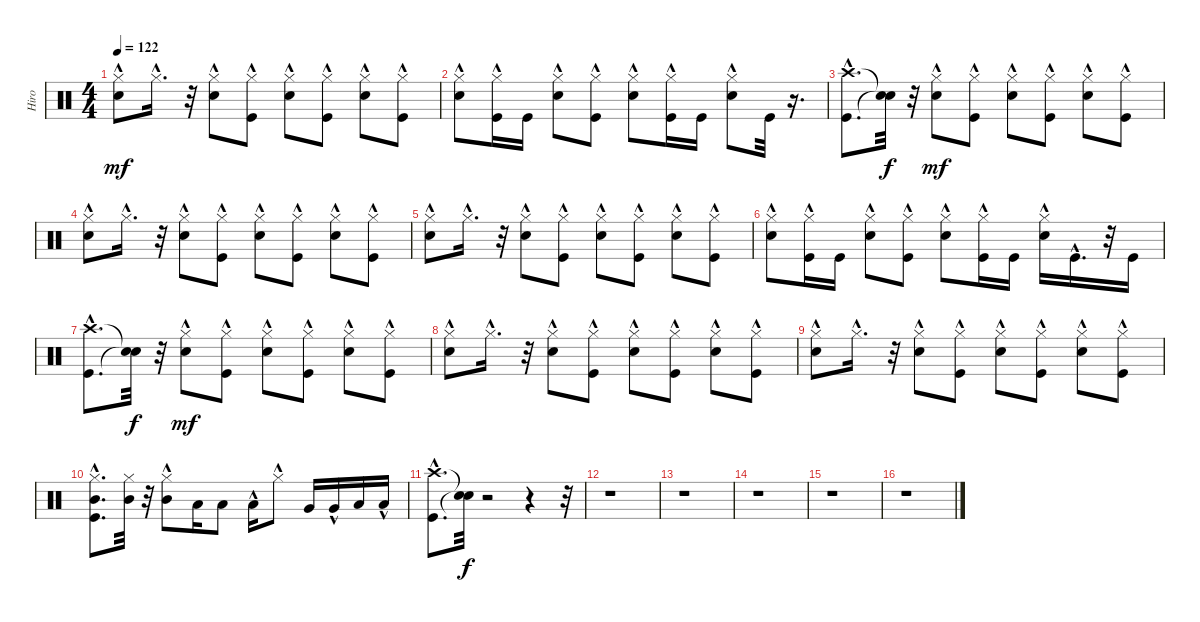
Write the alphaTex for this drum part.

\track ("Hiro" "Hiro") {instrument percussion}
\staff {score}
\articulation defaults
\ts (4 4)
\tempo 122
\clef neutral
\ks c
("Electric Snare (hit)"{hac} "Hi-Hat (closed)"{hac}).8{dy mf} "Hi-Hat (closed)"{hac}.16{d} r.32 ("Hi-Hat (closed)"{hac} "Electric Snare (hit)"{hac}).8 ("Kick (hit)"{hac} "Hi-Hat (closed)"{hac}).8 ("Hi-Hat (closed)"{hac} "Electric Snare (hit)"{hac}).8 ("Kick (hit)"{hac} "Hi-Hat (closed)"{hac}).8 ("Hi-Hat (closed)"{hac} "Electric Snare (hit)"{hac}).8 ("Kick (hit)"{hac} "Hi-Hat (closed)"{hac}).8 |
("Hi-Hat (closed)"{hac} "Electric Snare (hit)"{hac}).8 ("Hi-Hat (closed)"{hac} "Kick (hit)").16 "Kick (hit)".16 ("Hi-Hat (closed)"{hac} "Electric Snare (hit)"{hac}).8 ("Hi-Hat (closed)"{hac} "Kick (hit)"{hac}).8 ("Hi-Hat (closed)"{hac} "Electric Snare (hit)"{hac}).8 ("Hi-Hat (closed)"{hac} "Kick (hit)").16 "Kick (hit)".16 ("Hi-Hat (closed)"{hac} "Electric Snare (hit)"{hac}).8 "Kick (hit)".32 r.16{d} |
("Crash high (hit)"{hac} "Kick (hit)"{hac}).8{d} ("Snare (hit)"{t} "Snare (hit)"{t}).32{dy f} r.32 ("Electric Snare (hit)"{hac} "Hi-Hat (closed)").8{dy mf} ("Hi-Hat (closed)"{hac} "Kick (hit)"{hac}).8 ("Electric Snare (hit)"{hac} "Hi-Hat (closed)"{hac}).8 ("Hi-Hat (closed)"{hac} "Kick (hit)"{hac}).8 ("Electric Snare (hit)"{hac} "Hi-Hat (closed)"{hac}).8 ("Hi-Hat (closed)"{hac} "Kick (hit)"{hac}).8 |
("Hi-Hat (closed)"{hac} "Electric Snare (hit)"{hac}).8 "Hi-Hat (closed)"{hac}.16{d} r.32 ("Electric Snare (hit)"{hac} "Hi-Hat (closed)"{hac}).8 ("Hi-Hat (closed)"{hac} "Kick (hit)"{hac}).8 ("Electric Snare (hit)"{hac} "Hi-Hat (closed)"{hac}).8 ("Hi-Hat (closed)"{hac} "Kick (hit)"{hac}).8 ("Electric Snare (hit)"{hac} "Hi-Hat (closed)"{hac}).8 ("Hi-Hat (closed)"{hac} "Kick (hit)"{hac}).8 |
("Hi-Hat (closed)"{hac} "Electric Snare (hit)"{hac}).8 "Hi-Hat (closed)"{hac}.16{d} r.32 ("Electric Snare (hit)"{hac} "Hi-Hat (closed)"{hac}).8 ("Hi-Hat (closed)"{hac} "Kick (hit)"{hac}).8 ("Electric Snare (hit)"{hac} "Hi-Hat (closed)"{hac}).8 ("Hi-Hat (closed)"{hac} "Kick (hit)"{hac}).8 ("Electric Snare (hit)"{hac} "Hi-Hat (closed)"{hac}).8 ("Hi-Hat (closed)"{hac} "Kick (hit)"{hac}).8 |
("Electric Snare (hit)"{hac} "Hi-Hat (closed)"{hac}).8 ("Kick (hit)" "Hi-Hat (closed)"{hac}).16 "Kick (hit)".16 ("Electric Snare (hit)"{hac} "Hi-Hat (closed)"{hac}).8 ("Kick (hit)"{hac} "Hi-Hat (closed)"{hac}).8 ("Electric Snare (hit)"{hac} "Hi-Hat (closed)"{hac}).8 ("Kick (hit)" "Hi-Hat (closed)"{hac}).16 "Kick (hit)".16 ("Electric Snare (hit)"{hac} "Hi-Hat (closed)"{hac}).16 "Kick (hit)"{hac}.16{d} r.32 "Kick (hit)".16 |
("Crash high (hit)"{hac} "Kick (hit)"{hac}).8{d} ("Snare (hit)"{t} "Snare (hit)"{t}).32{dy f} r.32 ("Hi-Hat (closed)" "Electric Snare (hit)"{hac}).8{dy mf} ("Kick (hit)"{hac} "Hi-Hat (closed)"{hac}).8 ("Hi-Hat (closed)"{hac} "Electric Snare (hit)"{hac}).8 ("Kick (hit)"{hac} "Hi-Hat (closed)"{hac}).8 ("Hi-Hat (closed)"{hac} "Electric Snare (hit)"{hac}).8 ("Kick (hit)"{hac} "Hi-Hat (closed)"{hac}).8 |
("Electric Snare (hit)"{hac} "Hi-Hat (closed)"{hac}).8 "Hi-Hat (closed)"{hac}.16{d} r.32 ("Hi-Hat (closed)"{hac} "Electric Snare (hit)"{hac}).8 ("Kick (hit)"{hac} "Hi-Hat (closed)"{hac}).8 ("Hi-Hat (closed)"{hac} "Electric Snare (hit)"{hac}).8 ("Kick (hit)"{hac} "Hi-Hat (closed)"{hac}).8 ("Hi-Hat (closed)"{hac} "Electric Snare (hit)"{hac}).8 ("Kick (hit)"{hac} "Hi-Hat (closed)"{hac}).8 |
("Electric Snare (hit)"{hac} "Hi-Hat (closed)"{hac}).8 "Hi-Hat (closed)"{hac}.16{d} r.32 ("Hi-Hat (closed)"{hac} "Electric Snare (hit)"{hac}).8 ("Kick (hit)"{hac} "Hi-Hat (closed)"{hac}).8 ("Hi-Hat (closed)"{hac} "Electric Snare (hit)"{hac}).8 ("Kick (hit)"{hac} "Hi-Hat (closed)"{hac}).8 ("Hi-Hat (closed)"{hac} "Electric Snare (hit)"{hac}).8 ("Kick (hit)" "Hi-Hat (closed)"{hac}).8 |
("Hi-Hat (closed)"{hac} "Mid Tom (hit)"{hac} "Kick (hit)"{hac}).8{d} ("Hi-Hat (closed)" "Mid Tom (hit)").32 r.32 ("Hi-Hat (closed)"{hac} "Mid Tom (hit)"{hac}).8 "Low Tom (hit)".16 "Low Tom (hit)".8 "Low Tom (hit)"{hac}.16 "Hi-Hat (closed)"{hac}.8 "Very Low Tom (hit)".16 "Very Low Tom (hit)"{hac}.16 "Low Floor Tom (hit)".16 "Low Floor Tom (hit)"{hac}.16 |
("Kick (hit)"{hac} "Crash high (hit)"{hac}).8{d} ("Snare (hit)"{t} "Snare (hit)"{t}).32{dy f} r.2 r.4 r.32 |
r.1 |
r.1 |
r.1 |
r.1 |
r.1
